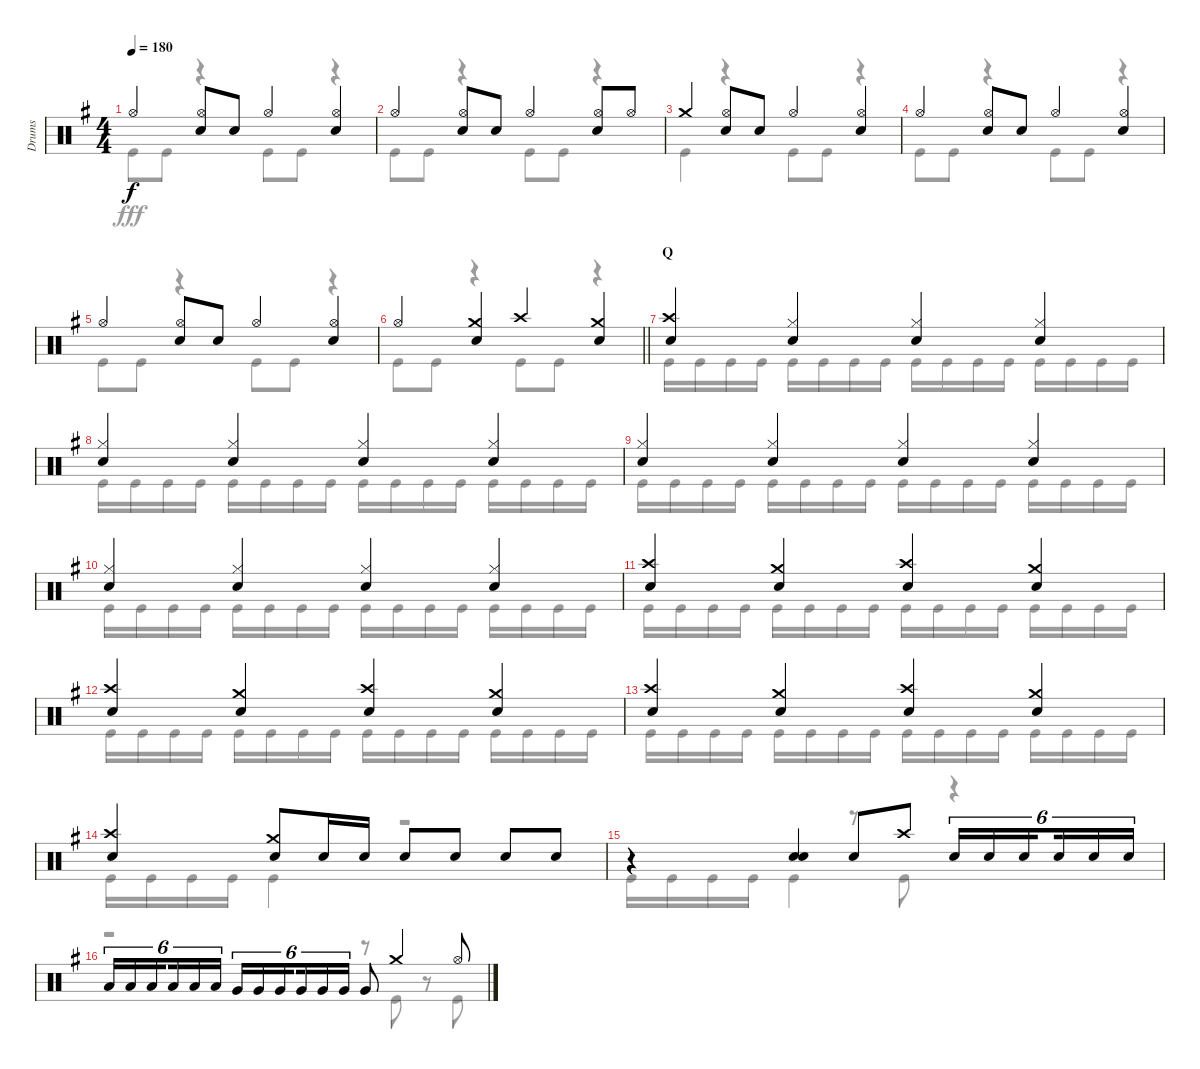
\track ("Drums" "Drums") {instrument percussion}
\staff {score}
\articulation defaults
\voice
\ts (4 4)
\tempo 180
\clef neutral
\ks g "Hi-Hat (open)".4{dy f}
("Hi-Hat (open)" "Snare (hit) 2").8 "Snare (hit) 2".8 "Hi-Hat (open)".4 ("Hi-Hat (open)" "Snare (hit) 2").4 |
"Hi-Hat (open)".4 ("Hi-Hat (open)" "Snare (hit) 2").8 "Snare (hit) 2".8 "Hi-Hat (open)".4 ("Hi-Hat (open)" "Snare (hit) 2").8 "Hi-Hat (open)".8 |
"Crash medium (hit)".4 ("Hi-Hat (open)" "Snare (hit) 2").8 "Snare (hit) 2".8 "Hi-Hat (open)".4 ("Hi-Hat (open)" "Snare (hit) 2").4 |
"Hi-Hat (open)".4 ("Hi-Hat (open)" "Snare (hit) 2").8 "Snare (hit) 2".8 "Hi-Hat (open)".4 ("Hi-Hat (open)" "Snare (hit) 2").4 |
"Hi-Hat (open)".4 ("Hi-Hat (open)" "Snare (hit) 2").8 "Snare (hit) 2".8 "Hi-Hat (open)".4 ("Hi-Hat (open)" "Snare (hit) 2").4 |
\barLineRight lightlight "Hi-Hat (open)".4
("Crash medium (hit)" "Snare (hit) 2").4 "Crash high (hit)".4 ("Crash medium (hit)" "Snare (hit) 2").4 |
\section ("" "Q")
("Crash high (hit)" "Snare (hit) 2").4 ("Hi-Hat (closed)" "Snare (hit) 2").4 ("Hi-Hat (closed)" "Snare (hit) 2").4 ("Hi-Hat (closed)" "Snare (hit) 2").4 |
("Hi-Hat (closed)" "Snare (hit) 2").4 ("Hi-Hat (closed)" "Snare (hit) 2").4 ("Hi-Hat (closed)" "Snare (hit) 2").4 ("Hi-Hat (closed)" "Snare (hit) 2").4 |
("Hi-Hat (closed)" "Snare (hit) 2").4 ("Hi-Hat (closed)" "Snare (hit) 2").4 ("Hi-Hat (closed)" "Snare (hit) 2").4 ("Hi-Hat (closed)" "Snare (hit) 2").4 |
("Hi-Hat (closed)" "Snare (hit) 2").4 ("Hi-Hat (closed)" "Snare (hit) 2").4 ("Hi-Hat (closed)" "Snare (hit) 2").4 ("Hi-Hat (closed)" "Snare (hit) 2").4 |
("Crash high (hit)" "Snare (hit) 2").4 ("Crash medium (hit)" "Snare (hit) 2").4 ("Crash high (hit)" "Snare (hit) 2").4 ("Crash medium (hit)" "Snare (hit) 2").4 |
("Crash high (hit)" "Snare (hit) 2").4 ("Crash medium (hit)" "Snare (hit) 2").4 ("Crash high (hit)" "Snare (hit) 2").4 ("Crash medium (hit)" "Snare (hit) 2").4 |
("Crash high (hit)" "Snare (hit) 2").4 ("Crash medium (hit)" "Snare (hit) 2").4 ("Crash high (hit)" "Snare (hit) 2").4 ("Crash medium (hit)" "Snare (hit) 2").4 |
("Crash high (hit)" "Snare (hit) 2").4 ("Crash medium (hit)" "Snare (hit) 2").8 "Snare (hit) 2".16 "Snare (hit) 2".16 "Snare (hit) 2".8 "Snare (hit) 2".8 "Snare (hit) 2".8 "Snare (hit) 2".8 |
r.4 ("Snare (hit) 2" "Snare (hit) 2").4 "Snare (hit) 2".8 "Crash high (hit)".8 "Snare (hit) 2".16{tu (6 4)} "Snare (hit) 2".16{tu (6 4)} "Snare (hit) 2".16{tu (6 4) beam splitsecondary} "Snare (hit) 2".16{tu (6 4)} "Snare (hit) 2".16{tu (6 4)} "Snare (hit) 2".16{tu (6 4)} |
"Low Tom (hit)".16{tu (6 4)} "Low Tom (hit)".16{tu (6 4)} "Low Tom (hit)".16{tu (6 4) beam splitsecondary} "Low Tom (hit)".16{tu (6 4)} "Low Tom (hit)".16{tu (6 4)} "Low Tom (hit)".16{tu (6 4)} "Very Low Tom (hit)".16{tu (6 4)} "Very Low Tom (hit)".16{tu (6 4)} "Very Low Tom (hit)".16{tu (6 4) beam splitsecondary} "Very Low Tom (hit)".16{tu (6 4)} "Very Low Tom (hit)".16{tu (6 4)} "Very Low Tom (hit)".16{tu (6 4)} "Very Low Tom (hit)".8 "Crash medium (hit)".4 "Hi-Hat (open)".8
\voice
\clef neutral
\ottava regular
\simile none
\ks g "Kick (hit)".8{dy fff} "Kick (hit)".8
r.4 "Kick (hit)".8 "Kick (hit)".8 r.4 |
"Kick (hit)".8 "Kick (hit)".8 r.4 "Kick (hit)".8 "Kick (hit)".8 r.4 |
"Kick (hit)".4 r.4 "Kick (hit)".8 "Kick (hit)".8 r.4 |
"Kick (hit)".8 "Kick (hit)".8 r.4 "Kick (hit)".8 "Kick (hit)".8 r.4 |
"Kick (hit)".8 "Kick (hit)".8 r.4 "Kick (hit)".8 "Kick (hit)".8 r.4 |
\barLineRight lightlight "Kick (hit)".8 "Kick (hit)".8
r.4 "Kick (hit)".8 "Kick (hit)".8 r.4 |
"Kick (hit)".16 "Kick (hit)".16 "Kick (hit)".16 "Kick (hit)".16 "Kick (hit)".16 "Kick (hit)".16 "Kick (hit)".16 "Kick (hit)".16 "Kick (hit)".16 "Kick (hit)".16 "Kick (hit)".16 "Kick (hit)".16 "Kick (hit)".16 "Kick (hit)".16 "Kick (hit)".16 "Kick (hit)".16 |
"Kick (hit)".16 "Kick (hit)".16 "Kick (hit)".16 "Kick (hit)".16 "Kick (hit)".16 "Kick (hit)".16 "Kick (hit)".16 "Kick (hit)".16 "Kick (hit)".16 "Kick (hit)".16 "Kick (hit)".16 "Kick (hit)".16 "Kick (hit)".16 "Kick (hit)".16 "Kick (hit)".16 "Kick (hit)".16 |
"Kick (hit)".16 "Kick (hit)".16 "Kick (hit)".16 "Kick (hit)".16 "Kick (hit)".16 "Kick (hit)".16 "Kick (hit)".16 "Kick (hit)".16 "Kick (hit)".16 "Kick (hit)".16 "Kick (hit)".16 "Kick (hit)".16 "Kick (hit)".16 "Kick (hit)".16 "Kick (hit)".16 "Kick (hit)".16 |
"Kick (hit)".16 "Kick (hit)".16 "Kick (hit)".16 "Kick (hit)".16 "Kick (hit)".16 "Kick (hit)".16 "Kick (hit)".16 "Kick (hit)".16 "Kick (hit)".16 "Kick (hit)".16 "Kick (hit)".16 "Kick (hit)".16 "Kick (hit)".16 "Kick (hit)".16 "Kick (hit)".16 "Kick (hit)".16 |
"Kick (hit)".16 "Kick (hit)".16 "Kick (hit)".16 "Kick (hit)".16 "Kick (hit)".16 "Kick (hit)".16 "Kick (hit)".16 "Kick (hit)".16 "Kick (hit)".16 "Kick (hit)".16 "Kick (hit)".16 "Kick (hit)".16 "Kick (hit)".16 "Kick (hit)".16 "Kick (hit)".16 "Kick (hit)".16 |
"Kick (hit)".16 "Kick (hit)".16 "Kick (hit)".16 "Kick (hit)".16 "Kick (hit)".16 "Kick (hit)".16 "Kick (hit)".16 "Kick (hit)".16 "Kick (hit)".16 "Kick (hit)".16 "Kick (hit)".16 "Kick (hit)".16 "Kick (hit)".16 "Kick (hit)".16 "Kick (hit)".16 "Kick (hit)".16 |
"Kick (hit)".16 "Kick (hit)".16 "Kick (hit)".16 "Kick (hit)".16 "Kick (hit)".16 "Kick (hit)".16 "Kick (hit)".16 "Kick (hit)".16 "Kick (hit)".16 "Kick (hit)".16 "Kick (hit)".16 "Kick (hit)".16 "Kick (hit)".16 "Kick (hit)".16 "Kick (hit)".16 "Kick (hit)".16 |
"Kick (hit)".16 "Kick (hit)".16 "Kick (hit)".16 "Kick (hit)".16 "Kick (hit)".4 r.2 |
"Kick (hit)".16 "Kick (hit)".16 "Kick (hit)".16 "Kick (hit)".16 "Kick (hit)".4 r.8 "Kick (hit)".8 r.4 |
r.2 r.8 "Kick (hit)".8 r.8 "Kick (hit)".8
